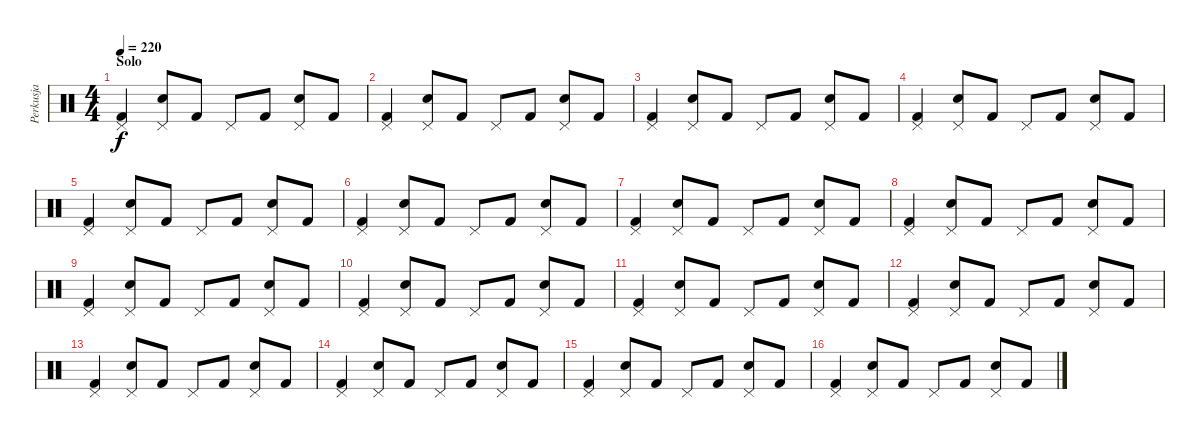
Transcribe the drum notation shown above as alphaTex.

\track ("Perkusja" "Perkusja") {instrument percussion}
\staff {score}
\articulation defaults
\ts (4 4)
\section ("" "Solo")
\tempo 220
\clef neutral
\ks c
("Pedal Hi-Hat (hit)" "Kick (hit) 2").4{dy f} ("Pedal Hi-Hat (hit)" "Snare (hit) 2").8 "Kick (hit) 2".8 "Pedal Hi-Hat (hit)".8 "Kick (hit) 2".8 ("Pedal Hi-Hat (hit)" "Snare (hit) 2").8 "Kick (hit) 2".8 |
("Pedal Hi-Hat (hit)" "Kick (hit) 2").4 ("Pedal Hi-Hat (hit)" "Snare (hit) 2").8 "Kick (hit) 2".8 "Pedal Hi-Hat (hit)".8 "Kick (hit) 2".8 ("Pedal Hi-Hat (hit)" "Snare (hit) 2").8 "Kick (hit) 2".8 |
("Pedal Hi-Hat (hit)" "Kick (hit) 2").4 ("Pedal Hi-Hat (hit)" "Snare (hit) 2").8 "Kick (hit) 2".8 "Pedal Hi-Hat (hit)".8 "Kick (hit) 2".8 ("Pedal Hi-Hat (hit)" "Snare (hit) 2").8 "Kick (hit) 2".8 |
("Pedal Hi-Hat (hit)" "Kick (hit) 2").4 ("Pedal Hi-Hat (hit)" "Snare (hit) 2").8 "Kick (hit) 2".8 "Pedal Hi-Hat (hit)".8 "Kick (hit) 2".8 ("Pedal Hi-Hat (hit)" "Snare (hit) 2").8 "Kick (hit) 2".8 |
("Pedal Hi-Hat (hit)" "Kick (hit) 2").4 ("Pedal Hi-Hat (hit)" "Snare (hit) 2").8 "Kick (hit) 2".8 "Pedal Hi-Hat (hit)".8 "Kick (hit) 2".8 ("Pedal Hi-Hat (hit)" "Snare (hit) 2").8 "Kick (hit) 2".8 |
("Pedal Hi-Hat (hit)" "Kick (hit) 2").4 ("Pedal Hi-Hat (hit)" "Snare (hit) 2").8 "Kick (hit) 2".8 "Pedal Hi-Hat (hit)".8 "Kick (hit) 2".8 ("Pedal Hi-Hat (hit)" "Snare (hit) 2").8 "Kick (hit) 2".8 |
("Pedal Hi-Hat (hit)" "Kick (hit) 2").4 ("Pedal Hi-Hat (hit)" "Snare (hit) 2").8 "Kick (hit) 2".8 "Pedal Hi-Hat (hit)".8 "Kick (hit) 2".8 ("Pedal Hi-Hat (hit)" "Snare (hit) 2").8 "Kick (hit) 2".8 |
("Pedal Hi-Hat (hit)" "Kick (hit) 2").4 ("Pedal Hi-Hat (hit)" "Snare (hit) 2").8 "Kick (hit) 2".8 "Pedal Hi-Hat (hit)".8 "Kick (hit) 2".8 ("Pedal Hi-Hat (hit)" "Snare (hit) 2").8 "Kick (hit) 2".8 |
("Pedal Hi-Hat (hit)" "Kick (hit) 2").4 ("Pedal Hi-Hat (hit)" "Snare (hit) 2").8 "Kick (hit) 2".8 "Pedal Hi-Hat (hit)".8 "Kick (hit) 2".8 ("Pedal Hi-Hat (hit)" "Snare (hit) 2").8 "Kick (hit) 2".8 |
("Pedal Hi-Hat (hit)" "Kick (hit) 2").4 ("Pedal Hi-Hat (hit)" "Snare (hit) 2").8 "Kick (hit) 2".8 "Pedal Hi-Hat (hit)".8 "Kick (hit) 2".8 ("Pedal Hi-Hat (hit)" "Snare (hit) 2").8 "Kick (hit) 2".8 |
("Pedal Hi-Hat (hit)" "Kick (hit) 2").4 ("Pedal Hi-Hat (hit)" "Snare (hit) 2").8 "Kick (hit) 2".8 "Pedal Hi-Hat (hit)".8 "Kick (hit) 2".8 ("Pedal Hi-Hat (hit)" "Snare (hit) 2").8 "Kick (hit) 2".8 |
("Pedal Hi-Hat (hit)" "Kick (hit) 2").4 ("Pedal Hi-Hat (hit)" "Snare (hit) 2").8 "Kick (hit) 2".8 "Pedal Hi-Hat (hit)".8 "Kick (hit) 2".8 ("Pedal Hi-Hat (hit)" "Snare (hit) 2").8 "Kick (hit) 2".8 |
("Pedal Hi-Hat (hit)" "Kick (hit) 2").4 ("Pedal Hi-Hat (hit)" "Snare (hit) 2").8 "Kick (hit) 2".8 "Pedal Hi-Hat (hit)".8 "Kick (hit) 2".8 ("Pedal Hi-Hat (hit)" "Snare (hit) 2").8 "Kick (hit) 2".8 |
("Pedal Hi-Hat (hit)" "Kick (hit) 2").4 ("Pedal Hi-Hat (hit)" "Snare (hit) 2").8 "Kick (hit) 2".8 "Pedal Hi-Hat (hit)".8 "Kick (hit) 2".8 ("Pedal Hi-Hat (hit)" "Snare (hit) 2").8 "Kick (hit) 2".8 |
("Pedal Hi-Hat (hit)" "Kick (hit) 2").4 ("Pedal Hi-Hat (hit)" "Snare (hit) 2").8 "Kick (hit) 2".8 "Pedal Hi-Hat (hit)".8 "Kick (hit) 2".8 ("Pedal Hi-Hat (hit)" "Snare (hit) 2").8 "Kick (hit) 2".8 |
("Pedal Hi-Hat (hit)" "Kick (hit) 2").4 ("Pedal Hi-Hat (hit)" "Snare (hit) 2").8 "Kick (hit) 2".8 "Pedal Hi-Hat (hit)".8 "Kick (hit) 2".8 ("Pedal Hi-Hat (hit)" "Snare (hit) 2").8 "Kick (hit) 2".8
